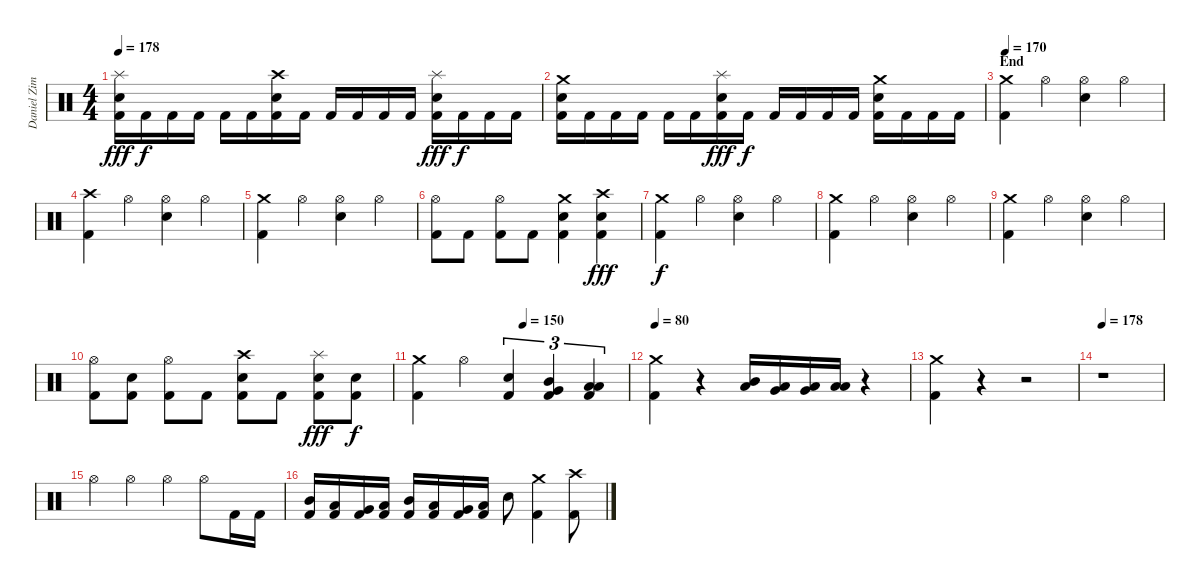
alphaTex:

\track ("Daniel Zimmermann" "Daniel Zim") {instrument percussion}
\staff {score}
\articulation defaults
\ts (4 4)
\tempo 178
\clef neutral
\ks c
("Kick (hit) 2" "Electric Snare (hit)" "Splash (hit)").16{dy fff} "Kick (hit) 2".16{dy f} "Kick (hit) 2".16 "Kick (hit) 2".16 "Kick (hit) 2".16 "Kick (hit) 2".16 ("Kick (hit) 2" "Electric Snare (hit)" "Crash high (hit)").16 "Kick (hit) 2".16 "Kick (hit) 2".16 "Kick (hit) 2".16 "Kick (hit) 2".16 "Kick (hit) 2".16 ("Kick (hit) 2" "Electric Snare (hit)" "Splash (hit)").16{dy fff} "Kick (hit) 2".16{dy f} "Kick (hit) 2".16 "Kick (hit) 2".16 |
("Kick (hit) 2" "Electric Snare (hit)" "Crash medium (hit)").16 "Kick (hit) 2".16 "Kick (hit) 2".16 "Kick (hit) 2".16 "Kick (hit) 2".16 "Kick (hit) 2".16 ("Kick (hit) 2" "Electric Snare (hit)" "Splash (hit)").16{dy fff} "Kick (hit) 2".16{dy f} "Kick (hit) 2".16 "Kick (hit) 2".16 "Kick (hit) 2".16 "Kick (hit) 2".16 ("Kick (hit) 2" "Electric Snare (hit)" "Crash medium (hit)").16 "Kick (hit) 2".16 "Kick (hit) 2".16 "Kick (hit) 2".16 |
\section ("" "End")
\tempo 170
("Kick (hit) 2" "Crash medium (hit)").4 "Hi-Hat (open)".4 ("Electric Snare (hit)" "Hi-Hat (open)").4 "Hi-Hat (open)".4 |
("Kick (hit) 2" "Crash high (hit)").4 "Hi-Hat (open)".4 ("Electric Snare (hit)" "Hi-Hat (open)").4 "Hi-Hat (open)".4 |
("Kick (hit) 2" "Crash medium (hit)").4 "Hi-Hat (open)".4 ("Electric Snare (hit)" "Hi-Hat (open)").4 "Hi-Hat (open)".4 |
("Kick (hit) 2" "Hi-Hat (open)").8 "Kick (hit) 2".8 ("Kick (hit) 2" "Hi-Hat (open)").8 "Kick (hit) 2".8 ("Kick (hit) 2" "Electric Snare (hit)" "Crash medium (hit)").4 ("Kick (hit) 2" "Electric Snare (hit)" "Crash high (hit)").4{dy fff} |
("Kick (hit) 2" "Crash medium (hit)").4{dy f} "Hi-Hat (open)".4 ("Electric Snare (hit)" "Hi-Hat (open)").4 "Hi-Hat (open)".4 |
("Kick (hit) 2" "Crash medium (hit)").4 "Hi-Hat (open)".4 ("Electric Snare (hit)" "Hi-Hat (open)").4 "Hi-Hat (open)".4 |
("Kick (hit) 2" "Crash medium (hit)").4 "Hi-Hat (open)".4 ("Electric Snare (hit)" "Hi-Hat (open)").4 "Hi-Hat (open)".4 |
("Kick (hit) 2" "Hi-Hat (open)").8 ("Kick (hit) 2" "Electric Snare (hit)").8 ("Kick (hit) 2" "Hi-Hat (open)").8 "Kick (hit) 2".8 ("Kick (hit) 2" "Electric Snare (hit)" "Crash high (hit)").8 "Kick (hit) 2".8 ("Kick (hit) 2" "Electric Snare (hit)" "Splash (hit)").8{dy fff} ("Kick (hit) 2" "Electric Snare (hit)").8{dy f} |
\tempo (150 0.5)
("Kick (hit) 2" "Crash medium (hit)").4 "Hi-Hat (open)".4 ("Kick (hit) 2" "Electric Snare (hit)").4{tu (3 2)} ("Kick (hit) 2" "Mid Tom (hit)" "Very Low Tom (hit)").4{tu (3 2)} ("Kick (hit) 2" "Low Tom (hit)" "Low Floor Tom (hit)").4{tu (3 2)} |
\tempo 80
("Kick (hit) 2" "Crash medium (hit)").4 r.4 ("Mid Tom (hit)" "Low Tom (hit)").16 ("Low Tom (hit)" "Very Low Tom (hit)").16 ("Very Low Tom (hit)" "Low Floor Tom (hit)").16 ("Low Floor Tom (hit)" "Low Floor Tom (hit)").16 r.4 |
("Kick (hit) 2" "Crash medium (hit)").4 r.4 r.2 |
\tempo 178
r.1 |
"Hi-Hat (open)".4 "Hi-Hat (open)".4 "Hi-Hat (open)".4 "Hi-Hat (open)".8 "Kick (hit) 2".16 "Kick (hit) 2".16 |
("Kick (hit) 2" "Mid Tom (hit)").16 ("Kick (hit) 2" "Low Tom (hit)").16 ("Kick (hit) 2" "Very Low Tom (hit)").16 ("Kick (hit) 2" "Low Floor Tom (hit)").16 ("Kick (hit) 2" "Mid Tom (hit)").16 ("Kick (hit) 2" "Low Tom (hit)").16 ("Kick (hit) 2" "Very Low Tom (hit)").16 ("Kick (hit) 2" "Low Floor Tom (hit)").16 "Electric Snare (hit)".8 ("Kick (hit) 2" "Crash medium (hit)").4 ("Kick (hit) 2" "Crash high (hit)").8
